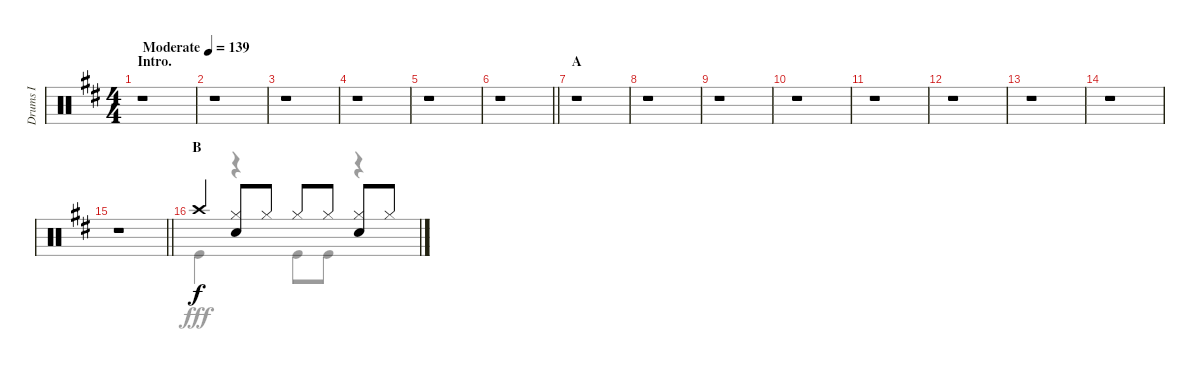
\track ("Drums I" "Drums I") {instrument percussion}
\staff {score}
\articulation defaults
\voice
\ts (4 4)
\section ("" "Intro.")
\tempo (139 "Moderate")
\clef neutral
\ks d
r.1{dy f} |
r.1 |
r.1 |
r.1 |
r.1 |
\barLineRight lightlight
r.1 |
\section ("" "A")
r.1 |
r.1 |
r.1 |
r.1 |
r.1 |
r.1 |
r.1 |
r.1 |
\barLineRight lightlight
r.1 |
\section ("" "B")
"Crash high (hit)".4 ("Hi-Hat (closed)" "Snare (hit) 2").8 "Hi-Hat (closed)".8 "Hi-Hat (closed)".8 "Hi-Hat (closed)".8 ("Hi-Hat (closed)" "Snare (hit) 2").8 "Hi-Hat (closed)".8
\voice
\clef neutral
\ottava regular
\simile none
\ks d
r.1{dy fff} |
r.1 |
r.1 |
r.1 |
r.1 |
\barLineRight lightlight
r.1 |
r.1 |
r.1 |
r.1 |
r.1 |
r.1 |
r.1 |
r.1 |
r.1 |
\barLineRight lightlight
r.1 |
"Kick (hit)".4 r.4 "Kick (hit)".8 "Kick (hit)".8 r.4
